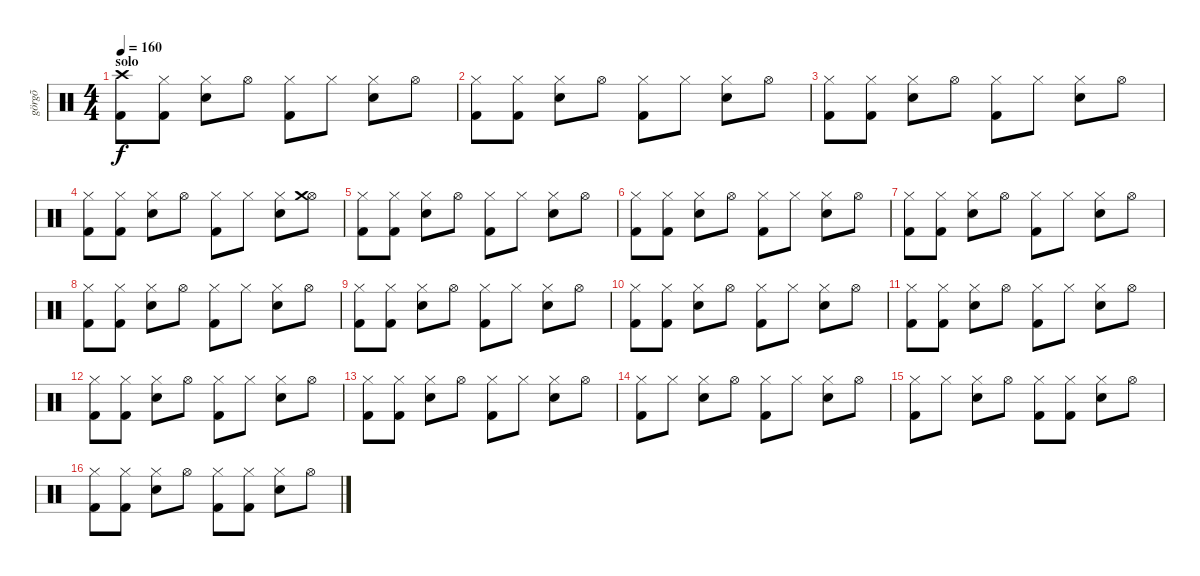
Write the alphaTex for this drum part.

\track ("görgõ" "görgõ") {instrument percussion}
\staff {score}
\articulation defaults
\ts (4 4)
\section ("" "solo")
\tempo 160
\clef neutral
\ks c
("Crash high (hit)" "Kick (hit) 2").8{dy f} ("Hi-Hat (closed)" "Kick (hit) 2").8 ("Hi-Hat (closed)" "Snare (hit) 2").8 "Hi-Hat (open)".8 ("Hi-Hat (closed)" "Kick (hit) 2").8 "Hi-Hat (closed)".8 ("Hi-Hat (closed)" "Snare (hit) 2").8 "Hi-Hat (open)".8 |
("Hi-Hat (closed)" "Kick (hit) 2").8 ("Hi-Hat (closed)" "Kick (hit) 2").8 ("Hi-Hat (closed)" "Snare (hit) 2").8 "Hi-Hat (open)".8 ("Hi-Hat (closed)" "Kick (hit) 2").8 "Hi-Hat (closed)".8 ("Hi-Hat (closed)" "Snare (hit) 2").8 "Hi-Hat (open)".8 |
("Hi-Hat (closed)" "Kick (hit) 2").8 ("Hi-Hat (closed)" "Kick (hit) 2").8 ("Hi-Hat (closed)" "Snare (hit) 2").8 "Hi-Hat (open)".8 ("Hi-Hat (closed)" "Kick (hit) 2").8 "Hi-Hat (closed)".8 ("Hi-Hat (closed)" "Snare (hit) 2").8 "Hi-Hat (open)".8 |
("Hi-Hat (closed)" "Kick (hit) 2").8 ("Hi-Hat (closed)" "Kick (hit) 2").8 ("Hi-Hat (closed)" "Snare (hit) 2").8 "Hi-Hat (open)".8 ("Hi-Hat (closed)" "Kick (hit) 2").8 "Hi-Hat (closed)".8 ("Hi-Hat (closed)" "Snare (hit) 2").8 ("Hi-Hat (open)" "Crash medium (hit)").8 |
("Hi-Hat (closed)" "Kick (hit) 2").8 ("Hi-Hat (closed)" "Kick (hit) 2").8 ("Hi-Hat (closed)" "Snare (hit) 2").8 "Hi-Hat (open)".8 ("Hi-Hat (closed)" "Kick (hit) 2").8 "Hi-Hat (closed)".8 ("Hi-Hat (closed)" "Snare (hit) 2").8 "Hi-Hat (open)".8 |
("Hi-Hat (closed)" "Kick (hit) 2").8 ("Hi-Hat (closed)" "Kick (hit) 2").8 ("Hi-Hat (closed)" "Snare (hit) 2").8 "Hi-Hat (open)".8 ("Hi-Hat (closed)" "Kick (hit) 2").8 "Hi-Hat (closed)".8 ("Hi-Hat (closed)" "Snare (hit) 2").8 "Hi-Hat (open)".8 |
("Hi-Hat (closed)" "Kick (hit) 2").8 ("Hi-Hat (closed)" "Kick (hit) 2").8 ("Hi-Hat (closed)" "Snare (hit) 2").8 "Hi-Hat (open)".8 ("Hi-Hat (closed)" "Kick (hit) 2").8 "Hi-Hat (closed)".8 ("Hi-Hat (closed)" "Snare (hit) 2").8 "Hi-Hat (open)".8 |
("Hi-Hat (closed)" "Kick (hit) 2").8 ("Hi-Hat (closed)" "Kick (hit) 2").8 ("Hi-Hat (closed)" "Snare (hit) 2").8 "Hi-Hat (open)".8 ("Hi-Hat (closed)" "Kick (hit) 2").8 "Hi-Hat (closed)".8 ("Hi-Hat (closed)" "Snare (hit) 2").8 "Hi-Hat (open)".8 |
("Hi-Hat (closed)" "Kick (hit) 2").8 ("Hi-Hat (closed)" "Kick (hit) 2").8 ("Hi-Hat (closed)" "Snare (hit) 2").8 "Hi-Hat (open)".8 ("Hi-Hat (closed)" "Kick (hit) 2").8 "Hi-Hat (closed)".8 ("Hi-Hat (closed)" "Snare (hit) 2").8 "Hi-Hat (open)".8 |
("Hi-Hat (closed)" "Kick (hit) 2").8 ("Hi-Hat (closed)" "Kick (hit) 2").8 ("Hi-Hat (closed)" "Snare (hit) 2").8 "Hi-Hat (open)".8 ("Hi-Hat (closed)" "Kick (hit) 2").8 "Hi-Hat (closed)".8 ("Hi-Hat (closed)" "Snare (hit) 2").8 "Hi-Hat (open)".8 |
("Hi-Hat (closed)" "Kick (hit) 2").8 ("Hi-Hat (closed)" "Kick (hit) 2").8 ("Hi-Hat (closed)" "Snare (hit) 2").8 "Hi-Hat (open)".8 ("Hi-Hat (closed)" "Kick (hit) 2").8 "Hi-Hat (closed)".8 ("Hi-Hat (closed)" "Snare (hit) 2").8 "Hi-Hat (open)".8 |
("Hi-Hat (closed)" "Kick (hit) 2").8 ("Hi-Hat (closed)" "Kick (hit) 2").8 ("Hi-Hat (closed)" "Snare (hit) 2").8 "Hi-Hat (open)".8 ("Hi-Hat (closed)" "Kick (hit) 2").8 "Hi-Hat (closed)".8 ("Hi-Hat (closed)" "Snare (hit) 2").8 "Hi-Hat (open)".8 |
("Hi-Hat (closed)" "Kick (hit) 2").8 ("Hi-Hat (closed)" "Kick (hit) 2").8 ("Hi-Hat (closed)" "Snare (hit) 2").8 "Hi-Hat (open)".8 ("Hi-Hat (closed)" "Kick (hit) 2").8 "Hi-Hat (closed)".8 ("Hi-Hat (closed)" "Snare (hit) 2").8 "Hi-Hat (open)".8 |
("Hi-Hat (closed)" "Kick (hit) 2").8 "Hi-Hat (closed)".8 ("Hi-Hat (closed)" "Snare (hit) 2").8 "Hi-Hat (open)".8 ("Hi-Hat (closed)" "Kick (hit) 2").8 "Hi-Hat (closed)".8 ("Hi-Hat (closed)" "Snare (hit) 2").8 "Hi-Hat (open)".8 |
("Hi-Hat (closed)" "Kick (hit) 2").8 "Hi-Hat (closed)".8 ("Hi-Hat (closed)" "Snare (hit) 2").8 "Hi-Hat (open)".8 ("Hi-Hat (closed)" "Kick (hit) 2").8 ("Hi-Hat (closed)" "Kick (hit) 2").8 ("Hi-Hat (closed)" "Snare (hit) 2").8 "Hi-Hat (open)".8 |
("Hi-Hat (closed)" "Kick (hit) 2").8 ("Hi-Hat (closed)" "Kick (hit) 2").8 ("Hi-Hat (closed)" "Snare (hit) 2").8 "Hi-Hat (open)".8 ("Hi-Hat (closed)" "Kick (hit) 2").8 ("Hi-Hat (closed)" "Kick (hit) 2").8 ("Hi-Hat (closed)" "Snare (hit) 2").8 "Hi-Hat (open)".8
